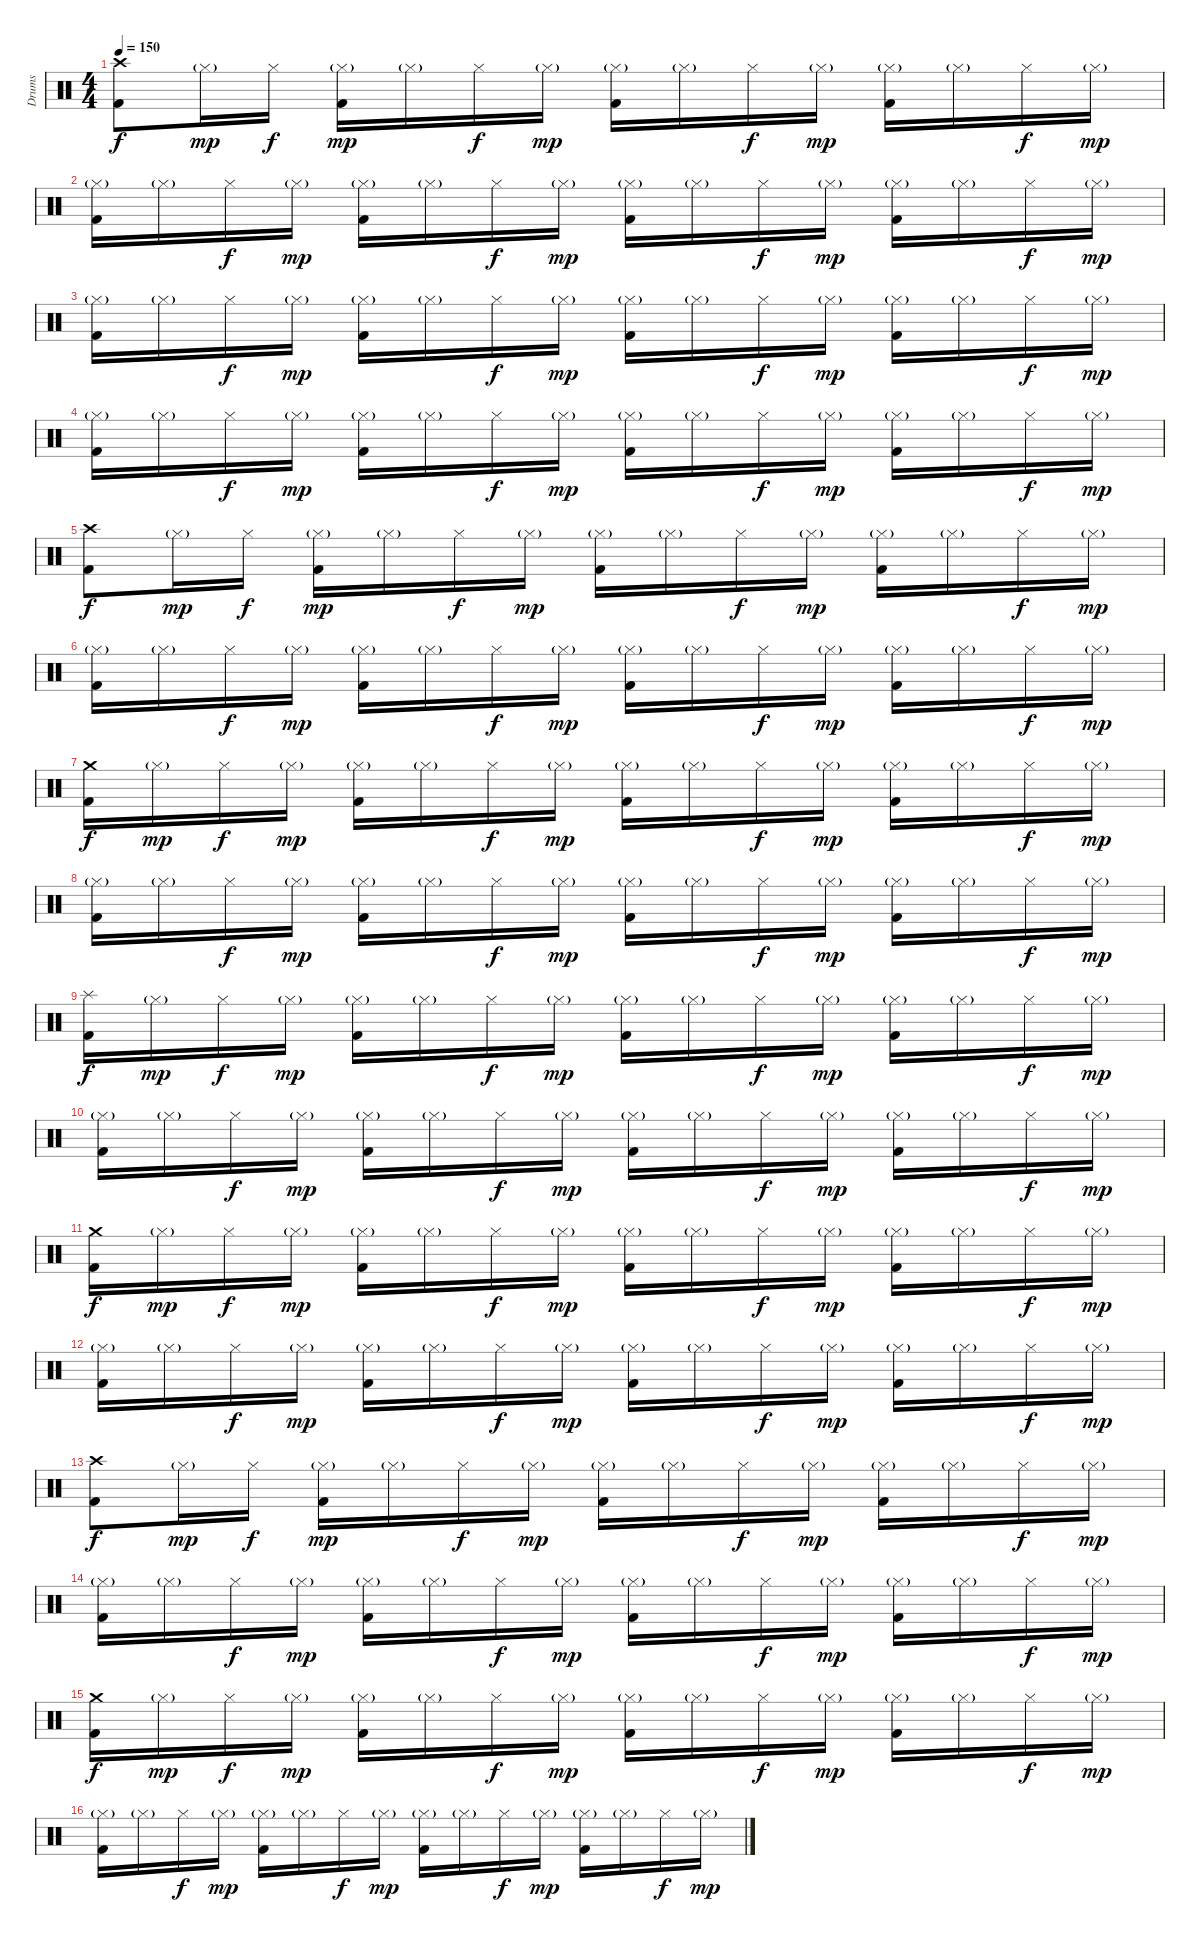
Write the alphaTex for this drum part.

\track ("Drums" "Drums") {instrument percussion}
\staff {score}
\articulation defaults
\ts (4 4)
\tempo 150
\clef neutral
\ks c
("Crash high (hit)" "Kick (hit) 2").8{dy f} "Hi-Hat (closed)"{g}.16{dy mp} "Hi-Hat (closed)".16{dy f} ("Hi-Hat (closed)"{g} "Kick (hit) 2").16{dy mp} "Hi-Hat (closed)"{g}.16 "Hi-Hat (closed)".16{dy f} "Hi-Hat (closed)"{g}.16{dy mp} ("Hi-Hat (closed)"{g} "Kick (hit) 2").16 "Hi-Hat (closed)"{g}.16 "Hi-Hat (closed)".16{dy f} "Hi-Hat (closed)"{g}.16{dy mp} ("Hi-Hat (closed)"{g} "Kick (hit) 2").16 "Hi-Hat (closed)"{g}.16 "Hi-Hat (closed)".16{dy f} "Hi-Hat (closed)"{g}.16{dy mp} |
("Hi-Hat (closed)"{g} "Kick (hit) 2").16 "Hi-Hat (closed)"{g}.16 "Hi-Hat (closed)".16{dy f} "Hi-Hat (closed)"{g}.16{dy mp} ("Hi-Hat (closed)"{g} "Kick (hit) 2").16 "Hi-Hat (closed)"{g}.16 "Hi-Hat (closed)".16{dy f} "Hi-Hat (closed)"{g}.16{dy mp} ("Hi-Hat (closed)"{g} "Kick (hit) 2").16 "Hi-Hat (closed)"{g}.16 "Hi-Hat (closed)".16{dy f} "Hi-Hat (closed)"{g}.16{dy mp} ("Hi-Hat (closed)"{g} "Kick (hit) 2").16 "Hi-Hat (closed)"{g}.16 "Hi-Hat (closed)".16{dy f} "Hi-Hat (closed)"{g}.16{dy mp} |
("Hi-Hat (closed)"{g} "Kick (hit) 2").16 "Hi-Hat (closed)"{g}.16 "Hi-Hat (closed)".16{dy f} "Hi-Hat (closed)"{g}.16{dy mp} ("Hi-Hat (closed)"{g} "Kick (hit) 2").16 "Hi-Hat (closed)"{g}.16 "Hi-Hat (closed)".16{dy f} "Hi-Hat (closed)"{g}.16{dy mp} ("Hi-Hat (closed)"{g} "Kick (hit) 2").16 "Hi-Hat (closed)"{g}.16 "Hi-Hat (closed)".16{dy f} "Hi-Hat (closed)"{g}.16{dy mp} ("Hi-Hat (closed)"{g} "Kick (hit) 2").16 "Hi-Hat (closed)"{g}.16 "Hi-Hat (closed)".16{dy f} "Hi-Hat (closed)"{g}.16{dy mp} |
("Hi-Hat (closed)"{g} "Kick (hit) 2").16 "Hi-Hat (closed)"{g}.16 "Hi-Hat (closed)".16{dy f} "Hi-Hat (closed)"{g}.16{dy mp} ("Hi-Hat (closed)"{g} "Kick (hit) 2").16 "Hi-Hat (closed)"{g}.16 "Hi-Hat (closed)".16{dy f} "Hi-Hat (closed)"{g}.16{dy mp} ("Hi-Hat (closed)"{g} "Kick (hit) 2").16 "Hi-Hat (closed)"{g}.16 "Hi-Hat (closed)".16{dy f} "Hi-Hat (closed)"{g}.16{dy mp} ("Hi-Hat (closed)"{g} "Kick (hit) 2").16 "Hi-Hat (closed)"{g}.16 "Hi-Hat (closed)".16{dy f} "Hi-Hat (closed)"{g}.16{dy mp} |
("Crash high (hit)" "Kick (hit) 2").8{dy f} "Hi-Hat (closed)"{g}.16{dy mp} "Hi-Hat (closed)".16{dy f} ("Hi-Hat (closed)"{g} "Kick (hit) 2").16{dy mp} "Hi-Hat (closed)"{g}.16 "Hi-Hat (closed)".16{dy f} "Hi-Hat (closed)"{g}.16{dy mp} ("Hi-Hat (closed)"{g} "Kick (hit) 2").16 "Hi-Hat (closed)"{g}.16 "Hi-Hat (closed)".16{dy f} "Hi-Hat (closed)"{g}.16{dy mp} ("Hi-Hat (closed)"{g} "Kick (hit) 2").16 "Hi-Hat (closed)"{g}.16 "Hi-Hat (closed)".16{dy f} "Hi-Hat (closed)"{g}.16{dy mp} |
("Hi-Hat (closed)"{g} "Kick (hit) 2").16 "Hi-Hat (closed)"{g}.16 "Hi-Hat (closed)".16{dy f} "Hi-Hat (closed)"{g}.16{dy mp} ("Hi-Hat (closed)"{g} "Kick (hit) 2").16 "Hi-Hat (closed)"{g}.16 "Hi-Hat (closed)".16{dy f} "Hi-Hat (closed)"{g}.16{dy mp} ("Hi-Hat (closed)"{g} "Kick (hit) 2").16 "Hi-Hat (closed)"{g}.16 "Hi-Hat (closed)".16{dy f} "Hi-Hat (closed)"{g}.16{dy mp} ("Hi-Hat (closed)"{g} "Kick (hit) 2").16 "Hi-Hat (closed)"{g}.16 "Hi-Hat (closed)".16{dy f} "Hi-Hat (closed)"{g}.16{dy mp} |
("Crash medium (hit)" "Kick (hit) 2").16{dy f} "Hi-Hat (closed)"{g}.16{dy mp} "Hi-Hat (closed)".16{dy f} "Hi-Hat (closed)"{g}.16{dy mp} ("Hi-Hat (closed)"{g} "Kick (hit) 2").16 "Hi-Hat (closed)"{g}.16 "Hi-Hat (closed)".16{dy f} "Hi-Hat (closed)"{g}.16{dy mp} ("Hi-Hat (closed)"{g} "Kick (hit) 2").16 "Hi-Hat (closed)"{g}.16 "Hi-Hat (closed)".16{dy f} "Hi-Hat (closed)"{g}.16{dy mp} ("Hi-Hat (closed)"{g} "Kick (hit) 2").16 "Hi-Hat (closed)"{g}.16 "Hi-Hat (closed)".16{dy f} "Hi-Hat (closed)"{g}.16{dy mp} |
("Hi-Hat (closed)"{g} "Kick (hit) 2").16 "Hi-Hat (closed)"{g}.16 "Hi-Hat (closed)".16{dy f} "Hi-Hat (closed)"{g}.16{dy mp} ("Hi-Hat (closed)"{g} "Kick (hit) 2").16 "Hi-Hat (closed)"{g}.16 "Hi-Hat (closed)".16{dy f} "Hi-Hat (closed)"{g}.16{dy mp} ("Hi-Hat (closed)"{g} "Kick (hit) 2").16 "Hi-Hat (closed)"{g}.16 "Hi-Hat (closed)".16{dy f} "Hi-Hat (closed)"{g}.16{dy mp} ("Hi-Hat (closed)"{g} "Kick (hit) 2").16 "Hi-Hat (closed)"{g}.16 "Hi-Hat (closed)".16{dy f} "Hi-Hat (closed)"{g}.16{dy mp} |
("Splash (hit)" "Kick (hit) 2").16{dy f} "Hi-Hat (closed)"{g}.16{dy mp} "Hi-Hat (closed)".16{dy f} "Hi-Hat (closed)"{g}.16{dy mp} ("Hi-Hat (closed)"{g} "Kick (hit) 2").16 "Hi-Hat (closed)"{g}.16 "Hi-Hat (closed)".16{dy f} "Hi-Hat (closed)"{g}.16{dy mp} ("Hi-Hat (closed)"{g} "Kick (hit) 2").16 "Hi-Hat (closed)"{g}.16 "Hi-Hat (closed)".16{dy f} "Hi-Hat (closed)"{g}.16{dy mp} ("Hi-Hat (closed)"{g} "Kick (hit) 2").16 "Hi-Hat (closed)"{g}.16 "Hi-Hat (closed)".16{dy f} "Hi-Hat (closed)"{g}.16{dy mp} |
("Hi-Hat (closed)"{g} "Kick (hit) 2").16 "Hi-Hat (closed)"{g}.16 "Hi-Hat (closed)".16{dy f} "Hi-Hat (closed)"{g}.16{dy mp} ("Hi-Hat (closed)"{g} "Kick (hit) 2").16 "Hi-Hat (closed)"{g}.16 "Hi-Hat (closed)".16{dy f} "Hi-Hat (closed)"{g}.16{dy mp} ("Hi-Hat (closed)"{g} "Kick (hit) 2").16 "Hi-Hat (closed)"{g}.16 "Hi-Hat (closed)".16{dy f} "Hi-Hat (closed)"{g}.16{dy mp} ("Hi-Hat (closed)"{g} "Kick (hit) 2").16 "Hi-Hat (closed)"{g}.16 "Hi-Hat (closed)".16{dy f} "Hi-Hat (closed)"{g}.16{dy mp} |
("Crash medium (hit)" "Kick (hit) 2").16{dy f} "Hi-Hat (closed)"{g}.16{dy mp} "Hi-Hat (closed)".16{dy f} "Hi-Hat (closed)"{g}.16{dy mp} ("Hi-Hat (closed)"{g} "Kick (hit) 2").16 "Hi-Hat (closed)"{g}.16 "Hi-Hat (closed)".16{dy f} "Hi-Hat (closed)"{g}.16{dy mp} ("Hi-Hat (closed)"{g} "Kick (hit) 2").16 "Hi-Hat (closed)"{g}.16 "Hi-Hat (closed)".16{dy f} "Hi-Hat (closed)"{g}.16{dy mp} ("Hi-Hat (closed)"{g} "Kick (hit) 2").16 "Hi-Hat (closed)"{g}.16 "Hi-Hat (closed)".16{dy f} "Hi-Hat (closed)"{g}.16{dy mp} |
("Hi-Hat (closed)"{g} "Kick (hit) 2").16 "Hi-Hat (closed)"{g}.16 "Hi-Hat (closed)".16{dy f} "Hi-Hat (closed)"{g}.16{dy mp} ("Hi-Hat (closed)"{g} "Kick (hit) 2").16 "Hi-Hat (closed)"{g}.16 "Hi-Hat (closed)".16{dy f} "Hi-Hat (closed)"{g}.16{dy mp} ("Hi-Hat (closed)"{g} "Kick (hit) 2").16 "Hi-Hat (closed)"{g}.16 "Hi-Hat (closed)".16{dy f} "Hi-Hat (closed)"{g}.16{dy mp} ("Hi-Hat (closed)"{g} "Kick (hit) 2").16 "Hi-Hat (closed)"{g}.16 "Hi-Hat (closed)".16{dy f} "Hi-Hat (closed)"{g}.16{dy mp} |
("Crash high (hit)" "Kick (hit) 2").8{dy f} "Hi-Hat (closed)"{g}.16{dy mp} "Hi-Hat (closed)".16{dy f} ("Hi-Hat (closed)"{g} "Kick (hit) 2").16{dy mp} "Hi-Hat (closed)"{g}.16 "Hi-Hat (closed)".16{dy f} "Hi-Hat (closed)"{g}.16{dy mp} ("Hi-Hat (closed)"{g} "Kick (hit) 2").16 "Hi-Hat (closed)"{g}.16 "Hi-Hat (closed)".16{dy f} "Hi-Hat (closed)"{g}.16{dy mp} ("Hi-Hat (closed)"{g} "Kick (hit) 2").16 "Hi-Hat (closed)"{g}.16 "Hi-Hat (closed)".16{dy f} "Hi-Hat (closed)"{g}.16{dy mp} |
("Hi-Hat (closed)"{g} "Kick (hit) 2").16 "Hi-Hat (closed)"{g}.16 "Hi-Hat (closed)".16{dy f} "Hi-Hat (closed)"{g}.16{dy mp} ("Hi-Hat (closed)"{g} "Kick (hit) 2").16 "Hi-Hat (closed)"{g}.16 "Hi-Hat (closed)".16{dy f} "Hi-Hat (closed)"{g}.16{dy mp} ("Hi-Hat (closed)"{g} "Kick (hit) 2").16 "Hi-Hat (closed)"{g}.16 "Hi-Hat (closed)".16{dy f} "Hi-Hat (closed)"{g}.16{dy mp} ("Hi-Hat (closed)"{g} "Kick (hit) 2").16 "Hi-Hat (closed)"{g}.16 "Hi-Hat (closed)".16{dy f} "Hi-Hat (closed)"{g}.16{dy mp} |
("Crash medium (hit)" "Kick (hit) 2").16{dy f} "Hi-Hat (closed)"{g}.16{dy mp} "Hi-Hat (closed)".16{dy f} "Hi-Hat (closed)"{g}.16{dy mp} ("Hi-Hat (closed)"{g} "Kick (hit) 2").16 "Hi-Hat (closed)"{g}.16 "Hi-Hat (closed)".16{dy f} "Hi-Hat (closed)"{g}.16{dy mp} ("Hi-Hat (closed)"{g} "Kick (hit) 2").16 "Hi-Hat (closed)"{g}.16 "Hi-Hat (closed)".16{dy f} "Hi-Hat (closed)"{g}.16{dy mp} ("Hi-Hat (closed)"{g} "Kick (hit) 2").16 "Hi-Hat (closed)"{g}.16 "Hi-Hat (closed)".16{dy f} "Hi-Hat (closed)"{g}.16{dy mp} |
("Hi-Hat (closed)"{g} "Kick (hit) 2").16 "Hi-Hat (closed)"{g}.16 "Hi-Hat (closed)".16{dy f} "Hi-Hat (closed)"{g}.16{dy mp} ("Hi-Hat (closed)"{g} "Kick (hit) 2").16 "Hi-Hat (closed)"{g}.16 "Hi-Hat (closed)".16{dy f} "Hi-Hat (closed)"{g}.16{dy mp} ("Hi-Hat (closed)"{g} "Kick (hit) 2").16 "Hi-Hat (closed)"{g}.16 "Hi-Hat (closed)".16{dy f} "Hi-Hat (closed)"{g}.16{dy mp} ("Hi-Hat (closed)"{g} "Kick (hit) 2").16 "Hi-Hat (closed)"{g}.16 "Hi-Hat (closed)".16{dy f} "Hi-Hat (closed)"{g}.16{dy mp}
